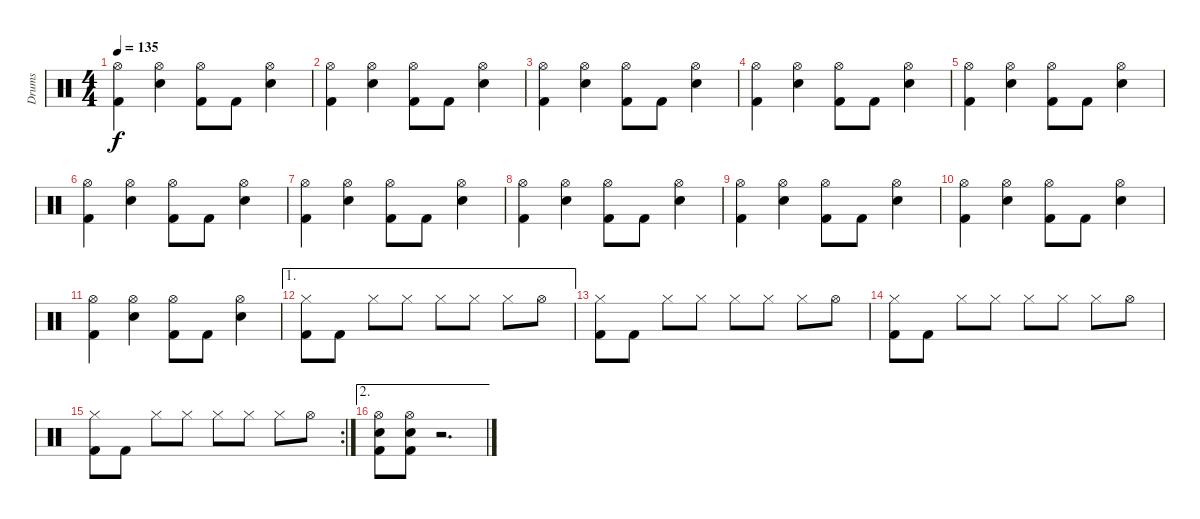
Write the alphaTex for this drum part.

\track ("Drums" "Drums") {instrument percussion}
\staff {score}
\articulation defaults
\ts (4 4)
\tempo 135
\clef neutral
\ks c
("Hi-Hat (open)" "Kick (hit) 2").4{dy f} ("Hi-Hat (open)" "Electric Snare (hit)").4 ("Hi-Hat (open)" "Kick (hit) 2").8 "Kick (hit) 2".8 ("Hi-Hat (open)" "Electric Snare (hit)").4 |
("Hi-Hat (open)" "Kick (hit) 2").4 ("Hi-Hat (open)" "Electric Snare (hit)").4 ("Hi-Hat (open)" "Kick (hit) 2").8 "Kick (hit) 2".8 ("Hi-Hat (open)" "Electric Snare (hit)").4 |
("Hi-Hat (open)" "Kick (hit) 2").4 ("Hi-Hat (open)" "Electric Snare (hit)").4 ("Hi-Hat (open)" "Kick (hit) 2").8 "Kick (hit) 2".8 ("Hi-Hat (open)" "Electric Snare (hit)").4 |
("Hi-Hat (open)" "Kick (hit) 2").4 ("Hi-Hat (open)" "Electric Snare (hit)").4 ("Hi-Hat (open)" "Kick (hit) 2").8 "Kick (hit) 2".8 ("Hi-Hat (open)" "Electric Snare (hit)").4 |
("Hi-Hat (open)" "Kick (hit) 2").4 ("Hi-Hat (open)" "Electric Snare (hit)").4 ("Hi-Hat (open)" "Kick (hit) 2").8 "Kick (hit) 2".8 ("Hi-Hat (open)" "Electric Snare (hit)").4 |
("Hi-Hat (open)" "Kick (hit) 2").4 ("Hi-Hat (open)" "Electric Snare (hit)").4 ("Hi-Hat (open)" "Kick (hit) 2").8 "Kick (hit) 2".8 ("Hi-Hat (open)" "Electric Snare (hit)").4 |
("Hi-Hat (open)" "Kick (hit) 2").4 ("Hi-Hat (open)" "Electric Snare (hit)").4 ("Hi-Hat (open)" "Kick (hit) 2").8 "Kick (hit) 2".8 ("Hi-Hat (open)" "Electric Snare (hit)").4 |
("Hi-Hat (open)" "Kick (hit) 2").4 ("Hi-Hat (open)" "Electric Snare (hit)").4 ("Hi-Hat (open)" "Kick (hit) 2").8 "Kick (hit) 2".8 ("Hi-Hat (open)" "Electric Snare (hit)").4 |
("Hi-Hat (open)" "Kick (hit) 2").4 ("Hi-Hat (open)" "Electric Snare (hit)").4 ("Hi-Hat (open)" "Kick (hit) 2").8 "Kick (hit) 2".8 ("Hi-Hat (open)" "Electric Snare (hit)").4 |
("Hi-Hat (open)" "Kick (hit) 2").4 ("Hi-Hat (open)" "Electric Snare (hit)").4 ("Hi-Hat (open)" "Kick (hit) 2").8 "Kick (hit) 2".8 ("Hi-Hat (open)" "Electric Snare (hit)").4 |
("Hi-Hat (open)" "Kick (hit) 2").4 ("Hi-Hat (open)" "Electric Snare (hit)").4 ("Hi-Hat (open)" "Kick (hit) 2").8 "Kick (hit) 2".8 ("Hi-Hat (open)" "Electric Snare (hit)").4 |
\ae 1
("Hi-Hat (closed)" "Kick (hit) 2").8 "Kick (hit) 2".8 "Hi-Hat (closed)".8 "Hi-Hat (closed)".8 "Hi-Hat (closed)".8 "Hi-Hat (closed)".8 "Hi-Hat (closed)".8 "Hi-Hat (open)".8 |
("Hi-Hat (closed)" "Kick (hit) 2").8 "Kick (hit) 2".8 "Hi-Hat (closed)".8 "Hi-Hat (closed)".8 "Hi-Hat (closed)".8 "Hi-Hat (closed)".8 "Hi-Hat (closed)".8 "Hi-Hat (open)".8 |
("Hi-Hat (closed)" "Kick (hit) 2").8 "Kick (hit) 2".8 "Hi-Hat (closed)".8 "Hi-Hat (closed)".8 "Hi-Hat (closed)".8 "Hi-Hat (closed)".8 "Hi-Hat (closed)".8 "Hi-Hat (open)".8 |
\rc 2
("Hi-Hat (closed)" "Kick (hit) 2").8 "Kick (hit) 2".8 "Hi-Hat (closed)".8 "Hi-Hat (closed)".8 "Hi-Hat (closed)".8 "Hi-Hat (closed)".8 "Hi-Hat (closed)".8 "Hi-Hat (open)".8 |
\ae 2
("Hi-Hat (open)" "Electric Snare (hit)" "Kick (hit) 2").8 ("Hi-Hat (open)" "Electric Snare (hit)" "Kick (hit) 2").8 r.2{d}
